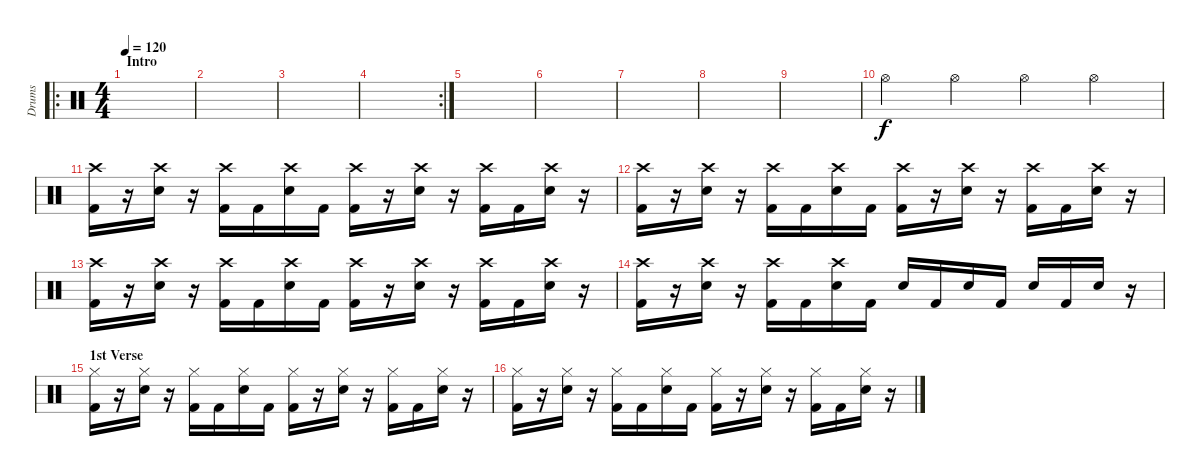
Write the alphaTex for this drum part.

\track ("Drums" "Drums") {instrument percussion}
\staff {score}
\articulation defaults
\ro
\ts (4 4)
\section ("" "Intro")
\tempo 120
\clef neutral
\ks c
|
|
|
\rc 2
|
|
|
|
|
|
"Hi-Hat (open)".4 "Hi-Hat (open)".4 "Hi-Hat (open)".4 "Hi-Hat (open)".4 |
("Crash high (hit)" "Kick (hit) 2").16 r.16 ("Crash high (hit)" "Snare (hit) 2").16 r.16 ("Crash high (hit)" "Kick (hit) 2").16 "Kick (hit) 2".16 ("Crash high (hit)" "Snare (hit) 2").16 "Kick (hit) 2".16 ("Kick (hit) 2" "Crash high (hit)").16 r.16 ("Snare (hit) 2" "Crash high (hit)").16 r.16 ("Kick (hit) 2" "Crash high (hit)").16 "Kick (hit) 2".16 ("Snare (hit) 2" "Crash high (hit)").16 r.16 |
("Crash high (hit)" "Kick (hit) 2").16 r.16 ("Crash high (hit)" "Snare (hit) 2").16 r.16 ("Crash high (hit)" "Kick (hit) 2").16 "Kick (hit) 2".16 ("Crash high (hit)" "Snare (hit) 2").16 "Kick (hit) 2".16 ("Kick (hit) 2" "Crash high (hit)").16 r.16 ("Snare (hit) 2" "Crash high (hit)").16 r.16 ("Kick (hit) 2" "Crash high (hit)").16 "Kick (hit) 2".16 ("Snare (hit) 2" "Crash high (hit)").16 r.16 |
("Crash high (hit)" "Kick (hit) 2").16 r.16 ("Crash high (hit)" "Snare (hit) 2").16 r.16 ("Crash high (hit)" "Kick (hit) 2").16 "Kick (hit) 2".16 ("Crash high (hit)" "Snare (hit) 2").16 "Kick (hit) 2".16 ("Kick (hit) 2" "Crash high (hit)").16 r.16 ("Snare (hit) 2" "Crash high (hit)").16 r.16 ("Kick (hit) 2" "Crash high (hit)").16 "Kick (hit) 2".16 ("Snare (hit) 2" "Crash high (hit)").16 r.16 |
("Crash high (hit)" "Kick (hit) 2").16 r.16 ("Crash high (hit)" "Snare (hit) 2").16 r.16 ("Crash high (hit)" "Kick (hit) 2").16 "Kick (hit) 2".16 ("Crash high (hit)" "Snare (hit) 2").16 "Kick (hit) 2".16 "Snare (hit) 2".16 "Kick (hit) 2".16 "Snare (hit) 2".16 "Kick (hit) 2".16 "Snare (hit) 2".16 "Kick (hit) 2".16 "Snare (hit) 2".16 r.16 |
\section ("" "1st Verse")
("Hi-Hat (closed)" "Kick (hit) 2").16 r.16 ("Hi-Hat (closed)" "Snare (hit) 2").16 r.16 ("Hi-Hat (closed)" "Kick (hit) 2").16 "Kick (hit) 2".16 ("Hi-Hat (closed)" "Snare (hit) 2").16 "Kick (hit) 2".16 ("Kick (hit) 2" "Hi-Hat (closed)").16 r.16 ("Snare (hit) 2" "Hi-Hat (closed)").16 r.16 ("Kick (hit) 2" "Hi-Hat (closed)").16 "Kick (hit) 2".16 ("Snare (hit) 2" "Hi-Hat (closed)").16 r.16 |
("Hi-Hat (closed)" "Kick (hit) 2").16 r.16 ("Hi-Hat (closed)" "Snare (hit) 2").16 r.16 ("Hi-Hat (closed)" "Kick (hit) 2").16 "Kick (hit) 2".16 ("Hi-Hat (closed)" "Snare (hit) 2").16 "Kick (hit) 2".16 ("Kick (hit) 2" "Hi-Hat (closed)").16 r.16 ("Snare (hit) 2" "Hi-Hat (closed)").16 r.16 ("Kick (hit) 2" "Hi-Hat (closed)").16 "Kick (hit) 2".16 ("Snare (hit) 2" "Hi-Hat (closed)").16 r.16
